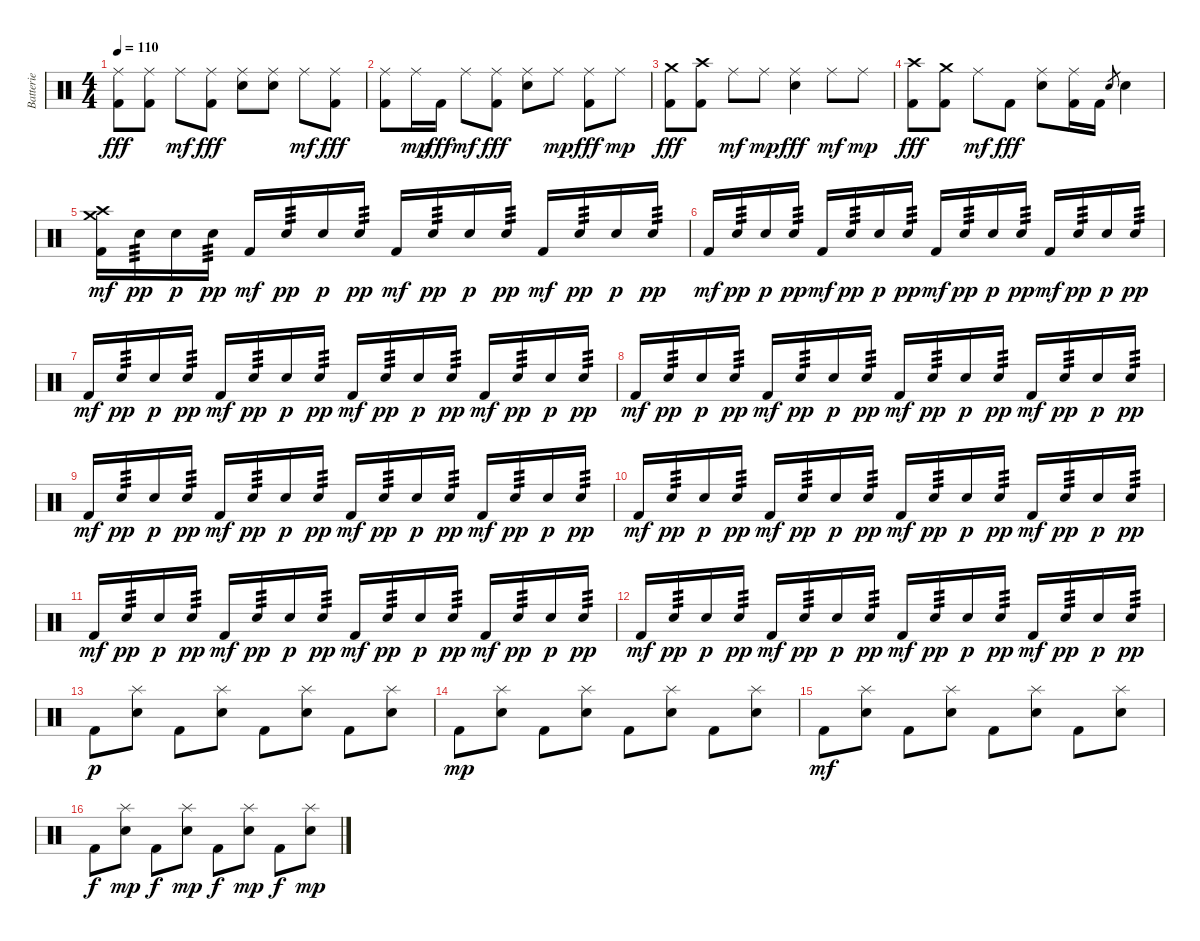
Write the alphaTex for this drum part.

\track ("Batterie" "Batterie") {instrument percussion}
\staff {score}
\articulation defaults
\ts (4 4)
\tempo 110
\clef neutral
\ks c
("Ride (middle)" "Kick (hit) 2").8{dy fff} ("Ride (middle)" "Kick (hit) 2").8 "Ride (middle)".8{dy mf} ("Ride (middle)" "Kick (hit) 2").8{dy fff} ("Ride (middle)" "Electric Snare (hit)").8 ("Ride (middle)" "Electric Snare (hit)").8 "Ride (middle)".8{dy mf} ("Ride (middle)" "Kick (hit) 2").8{dy fff} |
("Ride (middle)" "Kick (hit) 2").8 "Ride (middle)".16{dy mp} "Kick (hit) 2".16{dy fff} "Ride (middle)".8{dy mf} ("Ride (middle)" "Kick (hit) 2").8{dy fff} ("Ride (middle)" "Electric Snare (hit)").8 "Ride (middle)".8{dy mp} ("Ride (middle)" "Kick (hit) 2").8{dy fff} "Ride (middle)".8{dy mp} |
("Crash medium (hit)" "Kick (hit) 2").8{dy fff} ("Crash high (hit)" "Kick (hit) 2").8 "Ride (middle)".8{dy mf} "Ride (middle)".8{dy mp} ("Ride (middle)" "Electric Snare (hit)").4{dy fff} "Ride (middle)".8{dy mf} "Ride (middle)".8{dy mp} |
("Crash high (hit)" "Kick (hit) 2").8{dy fff} ("Crash medium (hit)" "Kick (hit) 2").8 "Ride (middle)".8{dy mf} "Kick (hit) 2".8{dy fff} ("Ride (middle)" "Electric Snare (hit)").8 ("Ride (middle)" "Kick (hit) 2").16 "Kick (hit) 2".16 "Electric Snare (hit)".8{gr} "Electric Snare (hit)".4 |
("Crash high (hit)" "Crash medium (hit)" "Kick (hit) 2").16{dy mf} "Electric Snare (hit)".16{tp 3 dy pp} "Electric Snare (hit)".16{dy p} "Electric Snare (hit)".16{tp 3 dy pp} "Kick (hit) 2".16{dy mf} "Electric Snare (hit)".16{tp 3 dy pp} "Electric Snare (hit)".16{dy p} "Electric Snare (hit)".16{tp 3 dy pp} "Kick (hit) 2".16{dy mf} "Electric Snare (hit)".16{tp 3 dy pp} "Electric Snare (hit)".16{dy p} "Electric Snare (hit)".16{tp 3 dy pp} "Kick (hit) 2".16{dy mf} "Electric Snare (hit)".16{tp 3 dy pp} "Electric Snare (hit)".16{dy p} "Electric Snare (hit)".16{tp 3 dy pp} |
"Kick (hit) 2".16{dy mf} "Electric Snare (hit)".16{tp 3 dy pp} "Electric Snare (hit)".16{dy p} "Electric Snare (hit)".16{tp 3 dy pp} "Kick (hit) 2".16{dy mf} "Electric Snare (hit)".16{tp 3 dy pp} "Electric Snare (hit)".16{dy p} "Electric Snare (hit)".16{tp 3 dy pp} "Kick (hit) 2".16{dy mf} "Electric Snare (hit)".16{tp 3 dy pp} "Electric Snare (hit)".16{dy p} "Electric Snare (hit)".16{tp 3 dy pp} "Kick (hit) 2".16{dy mf} "Electric Snare (hit)".16{tp 3 dy pp} "Electric Snare (hit)".16{dy p} "Electric Snare (hit)".16{tp 3 dy pp} |
"Kick (hit) 2".16{dy mf} "Electric Snare (hit)".16{tp 3 dy pp} "Electric Snare (hit)".16{dy p} "Electric Snare (hit)".16{tp 3 dy pp} "Kick (hit) 2".16{dy mf} "Electric Snare (hit)".16{tp 3 dy pp} "Electric Snare (hit)".16{dy p} "Electric Snare (hit)".16{tp 3 dy pp} "Kick (hit) 2".16{dy mf} "Electric Snare (hit)".16{tp 3 dy pp} "Electric Snare (hit)".16{dy p} "Electric Snare (hit)".16{tp 3 dy pp} "Kick (hit) 2".16{dy mf} "Electric Snare (hit)".16{tp 3 dy pp} "Electric Snare (hit)".16{dy p} "Electric Snare (hit)".16{tp 3 dy pp} |
"Kick (hit) 2".16{dy mf} "Electric Snare (hit)".16{tp 3 dy pp} "Electric Snare (hit)".16{dy p} "Electric Snare (hit)".16{tp 3 dy pp} "Kick (hit) 2".16{dy mf} "Electric Snare (hit)".16{tp 3 dy pp} "Electric Snare (hit)".16{dy p} "Electric Snare (hit)".16{tp 3 dy pp} "Kick (hit) 2".16{dy mf} "Electric Snare (hit)".16{tp 3 dy pp} "Electric Snare (hit)".16{dy p} "Electric Snare (hit)".16{tp 3 dy pp} "Kick (hit) 2".16{dy mf} "Electric Snare (hit)".16{tp 3 dy pp} "Electric Snare (hit)".16{dy p} "Electric Snare (hit)".16{tp 3 dy pp} |
"Kick (hit) 2".16{dy mf} "Electric Snare (hit)".16{tp 3 dy pp} "Electric Snare (hit)".16{dy p} "Electric Snare (hit)".16{tp 3 dy pp} "Kick (hit) 2".16{dy mf} "Electric Snare (hit)".16{tp 3 dy pp} "Electric Snare (hit)".16{dy p} "Electric Snare (hit)".16{tp 3 dy pp} "Kick (hit) 2".16{dy mf} "Electric Snare (hit)".16{tp 3 dy pp} "Electric Snare (hit)".16{dy p} "Electric Snare (hit)".16{tp 3 dy pp} "Kick (hit) 2".16{dy mf} "Electric Snare (hit)".16{tp 3 dy pp} "Electric Snare (hit)".16{dy p} "Electric Snare (hit)".16{tp 3 dy pp} |
"Kick (hit) 2".16{dy mf} "Electric Snare (hit)".16{tp 3 dy pp} "Electric Snare (hit)".16{dy p} "Electric Snare (hit)".16{tp 3 dy pp} "Kick (hit) 2".16{dy mf} "Electric Snare (hit)".16{tp 3 dy pp} "Electric Snare (hit)".16{dy p} "Electric Snare (hit)".16{tp 3 dy pp} "Kick (hit) 2".16{dy mf} "Electric Snare (hit)".16{tp 3 dy pp} "Electric Snare (hit)".16{dy p} "Electric Snare (hit)".16{tp 3 dy pp} "Kick (hit) 2".16{dy mf} "Electric Snare (hit)".16{tp 3 dy pp} "Electric Snare (hit)".16{dy p} "Electric Snare (hit)".16{tp 3 dy pp} |
"Kick (hit) 2".16{dy mf} "Electric Snare (hit)".16{tp 3 dy pp} "Electric Snare (hit)".16{dy p} "Electric Snare (hit)".16{tp 3 dy pp} "Kick (hit) 2".16{dy mf} "Electric Snare (hit)".16{tp 3 dy pp} "Electric Snare (hit)".16{dy p} "Electric Snare (hit)".16{tp 3 dy pp} "Kick (hit) 2".16{dy mf} "Electric Snare (hit)".16{tp 3 dy pp} "Electric Snare (hit)".16{dy p} "Electric Snare (hit)".16{tp 3 dy pp} "Kick (hit) 2".16{dy mf} "Electric Snare (hit)".16{tp 3 dy pp} "Electric Snare (hit)".16{dy p} "Electric Snare (hit)".16{tp 3 dy pp} |
"Kick (hit) 2".16{dy mf} "Electric Snare (hit)".16{tp 3 dy pp} "Electric Snare (hit)".16{dy p} "Electric Snare (hit)".16{tp 3 dy pp} "Kick (hit) 2".16{dy mf} "Electric Snare (hit)".16{tp 3 dy pp} "Electric Snare (hit)".16{dy p} "Electric Snare (hit)".16{tp 3 dy pp} "Kick (hit) 2".16{dy mf} "Electric Snare (hit)".16{tp 3 dy pp} "Electric Snare (hit)".16{dy p} "Electric Snare (hit)".16{tp 3 dy pp} "Kick (hit) 2".16{dy mf} "Electric Snare (hit)".16{tp 3 dy pp} "Electric Snare (hit)".16{dy p} "Electric Snare (hit)".16{tp 3 dy pp} |
"Kick (hit) 2".8{dy p} ("Splash (hit)" "Electric Snare (hit)").8 "Kick (hit) 2".8 ("Splash (hit)" "Electric Snare (hit)").8 "Kick (hit) 2".8 ("Splash (hit)" "Electric Snare (hit)").8 "Kick (hit) 2".8 ("Splash (hit)" "Electric Snare (hit)").8 |
"Kick (hit) 2".8{dy mp} ("Splash (hit)" "Electric Snare (hit)").8 "Kick (hit) 2".8 ("Splash (hit)" "Electric Snare (hit)").8 "Kick (hit) 2".8 ("Splash (hit)" "Electric Snare (hit)").8 "Kick (hit) 2".8 ("Splash (hit)" "Electric Snare (hit)").8 |
"Kick (hit) 2".8{dy mf} ("Splash (hit)" "Electric Snare (hit)").8 "Kick (hit) 2".8 ("Splash (hit)" "Electric Snare (hit)").8 "Kick (hit) 2".8 ("Splash (hit)" "Electric Snare (hit)").8 "Kick (hit) 2".8 ("Splash (hit)" "Electric Snare (hit)").8 |
"Kick (hit) 2".8{dy f} ("Splash (hit)" "Electric Snare (hit)").8{dy mp} "Kick (hit) 2".8{dy f} ("Splash (hit)" "Electric Snare (hit)").8{dy mp} "Kick (hit) 2".8{dy f} ("Splash (hit)" "Electric Snare (hit)").8{dy mp} "Kick (hit) 2".8{dy f} ("Splash (hit)" "Electric Snare (hit)").8{dy mp}
